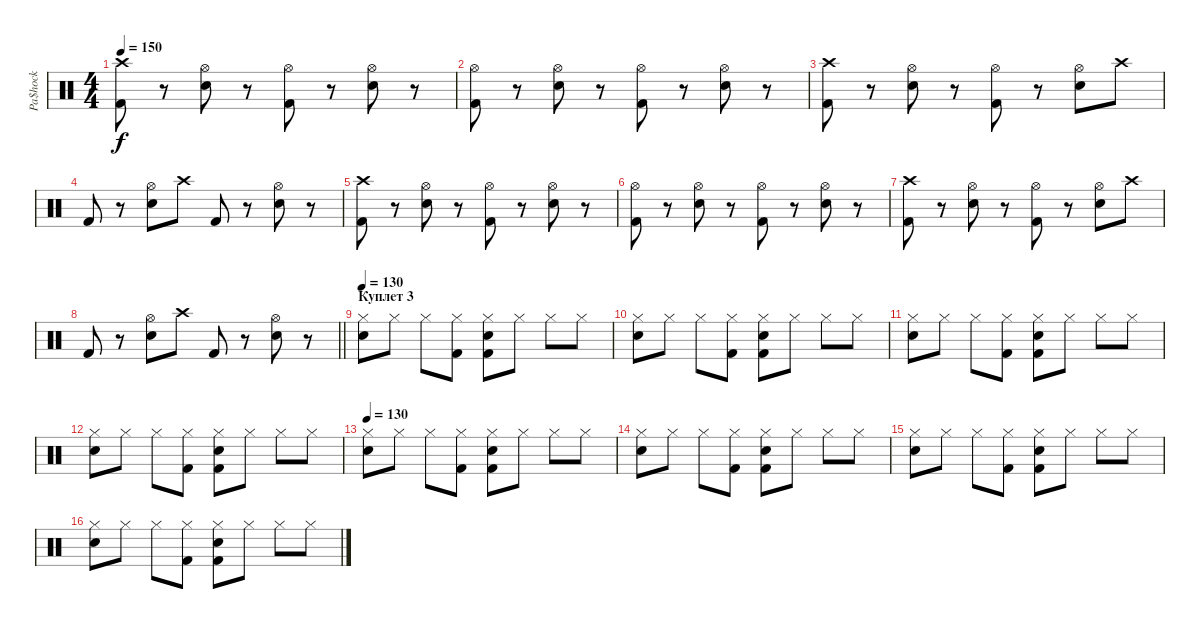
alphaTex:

\track ("Pa$hock" "Pa$hock") {instrument percussion}
\staff {score}
\articulation defaults
\ts (4 4)
\tempo 150
\clef neutral
\ks c
("Crash high (hit)" "Kick (hit) 2").8{dy f} r.8 ("Hi-Hat (open)" "Snare (hit) 2").8 r.8 ("Hi-Hat (open)" "Kick (hit) 2").8 r.8 ("Hi-Hat (open)" "Snare (hit) 2").8 r.8 |
("Hi-Hat (open)" "Kick (hit) 2").8 r.8 ("Hi-Hat (open)" "Snare (hit) 2").8 r.8 ("Hi-Hat (open)" "Kick (hit) 2").8 r.8 ("Hi-Hat (open)" "Snare (hit) 2").8 r.8 |
("Crash high (hit)" "Kick (hit) 2").8 r.8 ("Hi-Hat (open)" "Snare (hit) 2").8 r.8 ("Hi-Hat (open)" "Kick (hit) 2").8 r.8 ("Hi-Hat (open)" "Snare (hit) 2").8 "Crash high (hit)".8 |
"Kick (hit) 2".8 r.8 ("Hi-Hat (open)" "Snare (hit) 2").8 "Crash high (hit)".8 "Kick (hit) 2".8 r.8 ("Hi-Hat (open)" "Snare (hit) 2").8 r.8 |
("Crash high (hit)" "Kick (hit) 2").8 r.8 ("Hi-Hat (open)" "Snare (hit) 2").8 r.8 ("Hi-Hat (open)" "Kick (hit) 2").8 r.8 ("Hi-Hat (open)" "Snare (hit) 2").8 r.8 |
("Hi-Hat (open)" "Kick (hit) 2").8 r.8 ("Hi-Hat (open)" "Snare (hit) 2").8 r.8 ("Hi-Hat (open)" "Kick (hit) 2").8 r.8 ("Hi-Hat (open)" "Snare (hit) 2").8 r.8 |
("Crash high (hit)" "Kick (hit) 2").8 r.8 ("Hi-Hat (open)" "Snare (hit) 2").8 r.8 ("Hi-Hat (open)" "Kick (hit) 2").8 r.8 ("Hi-Hat (open)" "Snare (hit) 2").8 "Crash high (hit)".8 |
\barLineRight lightlight "Kick (hit) 2".8
r.8 ("Hi-Hat (open)" "Snare (hit) 2").8 "Crash high (hit)".8 "Kick (hit) 2".8 r.8 ("Hi-Hat (open)" "Snare (hit) 2").8 r.8 |
\section ("" "Куплет 3 ")
\tempo 130
("Hi-Hat (closed)" "Snare (hit) 2").8 "Hi-Hat (closed)".8 "Hi-Hat (closed)".8 ("Hi-Hat (closed)" "Kick (hit) 2").8 ("Hi-Hat (closed)" "Kick (hit) 2" "Snare (hit) 2").8 "Hi-Hat (closed)".8 "Hi-Hat (closed)".8 "Hi-Hat (closed)".8 |
("Hi-Hat (closed)" "Snare (hit) 2").8 "Hi-Hat (closed)".8 "Hi-Hat (closed)".8 ("Hi-Hat (closed)" "Kick (hit) 2").8 ("Hi-Hat (closed)" "Kick (hit) 2" "Snare (hit) 2").8 "Hi-Hat (closed)".8 "Hi-Hat (closed)".8 "Hi-Hat (closed)".8 |
("Hi-Hat (closed)" "Snare (hit) 2").8 "Hi-Hat (closed)".8 "Hi-Hat (closed)".8 ("Hi-Hat (closed)" "Kick (hit) 2").8 ("Hi-Hat (closed)" "Kick (hit) 2" "Snare (hit) 2").8 "Hi-Hat (closed)".8 "Hi-Hat (closed)".8 "Hi-Hat (closed)".8 |
("Hi-Hat (closed)" "Snare (hit) 2").8 "Hi-Hat (closed)".8 "Hi-Hat (closed)".8 ("Hi-Hat (closed)" "Kick (hit) 2").8 ("Hi-Hat (closed)" "Kick (hit) 2" "Snare (hit) 2").8 "Hi-Hat (closed)".8 "Hi-Hat (closed)".8 "Hi-Hat (closed)".8 |
\tempo 130
("Hi-Hat (closed)" "Snare (hit) 2").8 "Hi-Hat (closed)".8 "Hi-Hat (closed)".8 ("Hi-Hat (closed)" "Kick (hit) 2").8 ("Hi-Hat (closed)" "Kick (hit) 2" "Snare (hit) 2").8 "Hi-Hat (closed)".8 "Hi-Hat (closed)".8 "Hi-Hat (closed)".8 |
("Hi-Hat (closed)" "Snare (hit) 2").8 "Hi-Hat (closed)".8 "Hi-Hat (closed)".8 ("Hi-Hat (closed)" "Kick (hit) 2").8 ("Hi-Hat (closed)" "Kick (hit) 2" "Snare (hit) 2").8 "Hi-Hat (closed)".8 "Hi-Hat (closed)".8 "Hi-Hat (closed)".8 |
("Hi-Hat (closed)" "Snare (hit) 2").8 "Hi-Hat (closed)".8 "Hi-Hat (closed)".8 ("Hi-Hat (closed)" "Kick (hit) 2").8 ("Hi-Hat (closed)" "Kick (hit) 2" "Snare (hit) 2").8 "Hi-Hat (closed)".8 "Hi-Hat (closed)".8 "Hi-Hat (closed)".8 |
("Hi-Hat (closed)" "Snare (hit) 2").8 "Hi-Hat (closed)".8 "Hi-Hat (closed)".8 ("Hi-Hat (closed)" "Kick (hit) 2").8 ("Hi-Hat (closed)" "Kick (hit) 2" "Snare (hit) 2").8 "Hi-Hat (closed)".8 "Hi-Hat (closed)".8 "Hi-Hat (closed)".8
